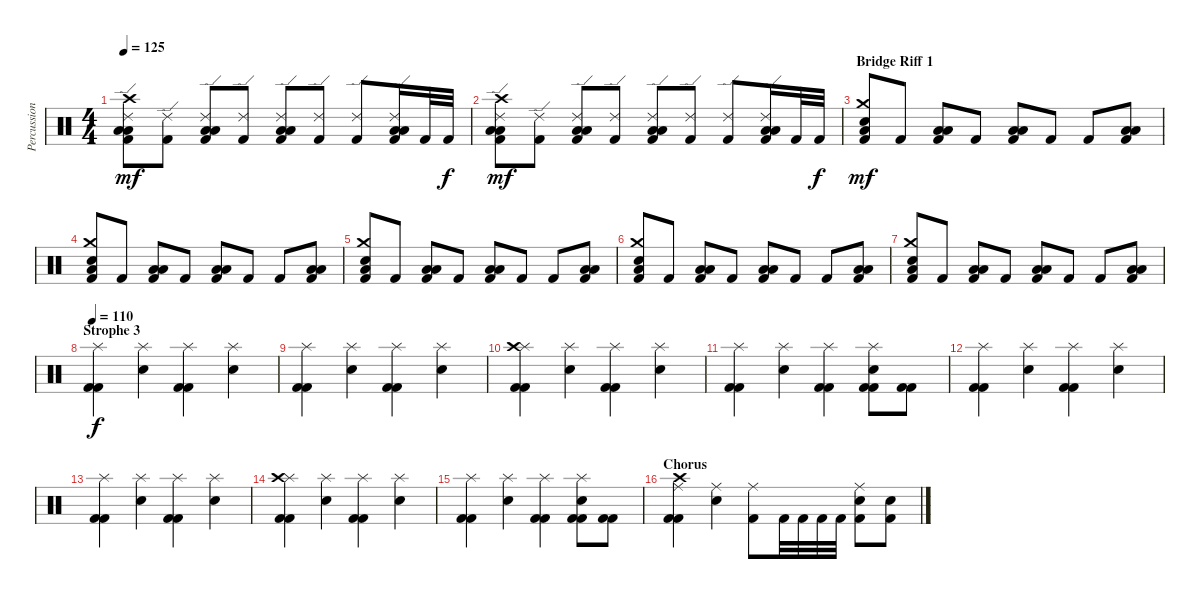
\track ("Percussion" "Percussion") {instrument percussion}
\staff {score}
\articulation defaults
\ts (4 4)
\tempo 125
\clef neutral
\ks c
("Crash high (hit)" "Ride (edge) 2" "Low Tom (hit)" "Low Tom (hit)" "Kick (hit) 2").8{dy mf} ("Ride (edge) 2" "Kick (hit) 2").8 ("Ride (edge) 2" "Low Tom (hit)" "Low Tom (hit)" "Kick (hit) 2").8 ("Ride (edge) 2" "Kick (hit) 2").8 ("Ride (edge) 2" "Low Tom (hit)" "Low Tom (hit)" "Kick (hit) 2").8 ("Ride (edge) 2" "Kick (hit) 2").8 ("Ride (edge) 2" "Kick (hit) 2").8 ("Ride (edge) 2" "Low Tom (hit)" "Low Tom (hit)" "Kick (hit) 2").16 "Kick (hit) 2".32 "Kick (hit) 2".32{dy f} |
("Crash high (hit)" "Ride (edge) 2" "Low Tom (hit)" "Low Tom (hit)" "Kick (hit) 2").8{dy mf} ("Ride (edge) 2" "Kick (hit) 2").8 ("Ride (edge) 2" "Low Tom (hit)" "Low Tom (hit)" "Kick (hit) 2").8 ("Ride (edge) 2" "Kick (hit) 2").8 ("Ride (edge) 2" "Low Tom (hit)" "Low Tom (hit)" "Kick (hit) 2").8 ("Ride (edge) 2" "Kick (hit) 2").8 ("Ride (edge) 2" "Kick (hit) 2").8 ("Ride (edge) 2" "Low Tom (hit)" "Low Tom (hit)" "Kick (hit) 2").16 "Kick (hit) 2".32 "Kick (hit) 2".32{dy f} |
\section ("" "Bridge Riff 1")
("Crash medium (hit)" "Low Tom (hit)" "Electric Snare (hit)" "Kick (hit) 2").8{dy mf} "Kick (hit) 2".8 ("Low Tom (hit)" "Low Tom (hit)" "Kick (hit) 2").8 "Kick (hit) 2".8 ("Low Tom (hit)" "Low Tom (hit)" "Kick (hit) 2").8 "Kick (hit) 2".8 "Kick (hit) 2".8 ("Low Tom (hit)" "Low Tom (hit)" "Kick (hit) 2").8 |
("Crash medium (hit)" "Low Tom (hit)" "Electric Snare (hit)" "Kick (hit) 2").8 "Kick (hit) 2".8 ("Low Tom (hit)" "Low Tom (hit)" "Kick (hit) 2").8 "Kick (hit) 2".8 ("Low Tom (hit)" "Low Tom (hit)" "Kick (hit) 2").8 "Kick (hit) 2".8 "Kick (hit) 2".8 ("Low Tom (hit)" "Low Tom (hit)" "Kick (hit) 2").8 |
("Crash medium (hit)" "Low Tom (hit)" "Electric Snare (hit)" "Kick (hit) 2").8 "Kick (hit) 2".8 ("Low Tom (hit)" "Low Tom (hit)" "Kick (hit) 2").8 "Kick (hit) 2".8 ("Low Tom (hit)" "Low Tom (hit)" "Kick (hit) 2").8 "Kick (hit) 2".8 "Kick (hit) 2".8 ("Low Tom (hit)" "Low Tom (hit)" "Kick (hit) 2").8 |
("Crash medium (hit)" "Low Tom (hit)" "Electric Snare (hit)" "Kick (hit) 2").8 "Kick (hit) 2".8 ("Low Tom (hit)" "Low Tom (hit)" "Kick (hit) 2").8 "Kick (hit) 2".8 ("Low Tom (hit)" "Low Tom (hit)" "Kick (hit) 2").8 "Kick (hit) 2".8 "Kick (hit) 2".8 ("Low Tom (hit)" "Low Tom (hit)" "Kick (hit) 2").8 |
("Crash medium (hit)" "Low Tom (hit)" "Electric Snare (hit)" "Kick (hit) 2").8 "Kick (hit) 2".8 ("Low Tom (hit)" "Low Tom (hit)" "Kick (hit) 2").8 "Kick (hit) 2".8 ("Low Tom (hit)" "Low Tom (hit)" "Kick (hit) 2").8 "Kick (hit) 2".8 "Kick (hit) 2".8 ("Low Tom (hit)" "Low Tom (hit)" "Kick (hit) 2").8 |
\section ("" "Strophe 3")
\tempo 110
("Splash (hit)" "Kick (hit) 2" "Kick (hit) 2").4{dy f} ("Splash (hit)" "Electric Snare (hit)").4 ("Splash (hit)" "Kick (hit) 2" "Kick (hit) 2").4 ("Splash (hit)" "Electric Snare (hit)").4 |
("Splash (hit)" "Kick (hit) 2" "Kick (hit) 2").4 ("Splash (hit)" "Electric Snare (hit)").4 ("Splash (hit)" "Kick (hit) 2" "Kick (hit) 2").4 ("Splash (hit)" "Electric Snare (hit)").4 |
("Splash (hit)" "Crash high (hit)" "Kick (hit) 2" "Kick (hit) 2").4 ("Splash (hit)" "Electric Snare (hit)").4 ("Splash (hit)" "Kick (hit) 2" "Kick (hit) 2").4 ("Splash (hit)" "Electric Snare (hit)").4 |
("Splash (hit)" "Kick (hit) 2" "Kick (hit) 2").4 ("Splash (hit)" "Electric Snare (hit)").4 ("Splash (hit)" "Kick (hit) 2" "Kick (hit) 2").4 ("Splash (hit)" "Kick (hit) 2" "Electric Snare (hit)" "Kick (hit) 2").8 ("Kick (hit) 2" "Kick (hit) 2").8 |
("Splash (hit)" "Kick (hit) 2" "Kick (hit) 2").4 ("Splash (hit)" "Electric Snare (hit)").4 ("Splash (hit)" "Kick (hit) 2" "Kick (hit) 2").4 ("Splash (hit)" "Electric Snare (hit)").4 |
("Splash (hit)" "Kick (hit) 2" "Kick (hit) 2").4 ("Splash (hit)" "Electric Snare (hit)").4 ("Splash (hit)" "Kick (hit) 2" "Kick (hit) 2").4 ("Splash (hit)" "Electric Snare (hit)").4 |
("Splash (hit)" "Crash high (hit)" "Kick (hit) 2" "Kick (hit) 2").4 ("Splash (hit)" "Electric Snare (hit)").4 ("Splash (hit)" "Kick (hit) 2" "Kick (hit) 2").4 ("Splash (hit)" "Electric Snare (hit)").4 |
("Splash (hit)" "Kick (hit) 2" "Kick (hit) 2").4 ("Splash (hit)" "Electric Snare (hit)").4 ("Splash (hit)" "Kick (hit) 2" "Kick (hit) 2").4 ("Splash (hit)" "Kick (hit) 2" "Electric Snare (hit)" "Kick (hit) 2").8 ("Kick (hit) 2" "Kick (hit) 2").8 |
\section ("" "Chorus")
("Crash high (hit)" "Ride (middle)" "Kick (hit) 2" "Kick (hit) 2").4 ("Ride (middle)" "Electric Snare (hit)").4 ("Ride (middle)" "Kick (hit) 2").8 "Kick (hit) 2".32 "Kick (hit) 2".32 "Kick (hit) 2".32 "Kick (hit) 2".32 ("Ride (middle)" "Electric Snare (hit)" "Kick (hit) 2").8 ("Electric Snare (hit)" "Kick (hit) 2").8
